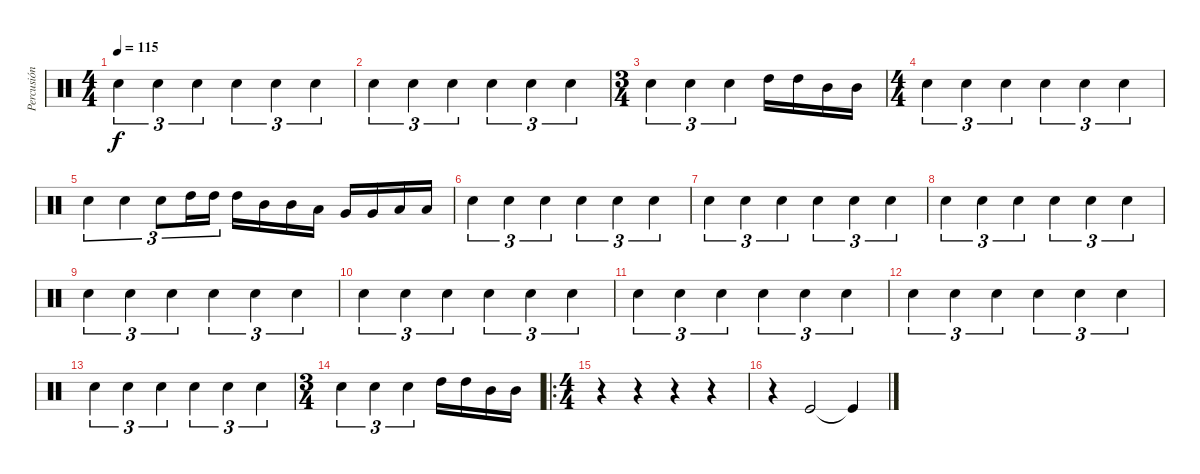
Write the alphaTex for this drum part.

\track ("Percusión" "Percusión") {instrument percussion}
\staff {score}
\articulation defaults
\ts (4 4)
\tempo 115
\clef neutral
\ks c "Electric Snare (hit)".4{tu (3 2) dy f} "Electric Snare (hit)".4{tu (3 2)} "Electric Snare (hit)".4{tu (3 2)} "Electric Snare (hit)".4{tu (3 2)} "Electric Snare (hit)".4{tu (3 2)} "Electric Snare (hit)".4{tu (3 2)}
|
"Electric Snare (hit)".4{tu (3 2)} "Electric Snare (hit)".4{tu (3 2)} "Electric Snare (hit)".4{tu (3 2)} "Electric Snare (hit)".4{tu (3 2)} "Electric Snare (hit)".4{tu (3 2)} "Electric Snare (hit)".4{tu (3 2)} |
\ts (3 4)
"Electric Snare (hit)".4{tu (3 2)} "Electric Snare (hit)".4{tu (3 2)} "Electric Snare (hit)".4{tu (3 2)} "High Tom (hit)".16 "High Tom (hit)".16 "Mid Tom (hit)".16 "Mid Tom (hit)".16 |
\ts (4 4)
"Electric Snare (hit)".4{tu (3 2)} "Electric Snare (hit)".4{tu (3 2)} "Electric Snare (hit)".4{tu (3 2)} "Electric Snare (hit)".4{tu (3 2)} "Electric Snare (hit)".4{tu (3 2)} "Electric Snare (hit)".4{tu (3 2)} |
"Electric Snare (hit)".4{tu (3 2)} "Electric Snare (hit)".4{tu (3 2)} "Electric Snare (hit)".8{tu (3 2)} "High Tom (hit)".16{tu (3 2)} "High Tom (hit)".16{tu (3 2)} "High Tom (hit)".16 "Mid Tom (hit)".16 "Mid Tom (hit)".16 "Low Tom (hit)".16 "Very Low Tom (hit)".16 "Very Low Tom (hit)".16 "Low Floor Tom (hit)".16 "Low Floor Tom (hit)".16 |
"Electric Snare (hit)".4{tu (3 2)} "Electric Snare (hit)".4{tu (3 2)} "Electric Snare (hit)".4{tu (3 2)} "Electric Snare (hit)".4{tu (3 2)} "Electric Snare (hit)".4{tu (3 2)} "Electric Snare (hit)".4{tu (3 2)} |
"Electric Snare (hit)".4{tu (3 2)} "Electric Snare (hit)".4{tu (3 2)} "Electric Snare (hit)".4{tu (3 2)} "Electric Snare (hit)".4{tu (3 2)} "Electric Snare (hit)".4{tu (3 2)} "Electric Snare (hit)".4{tu (3 2)} |
"Electric Snare (hit)".4{tu (3 2)} "Electric Snare (hit)".4{tu (3 2)} "Electric Snare (hit)".4{tu (3 2)} "Electric Snare (hit)".4{tu (3 2)} "Electric Snare (hit)".4{tu (3 2)} "Electric Snare (hit)".4{tu (3 2)} |
"Electric Snare (hit)".4{tu (3 2)} "Electric Snare (hit)".4{tu (3 2)} "Electric Snare (hit)".4{tu (3 2)} "Electric Snare (hit)".4{tu (3 2)} "Electric Snare (hit)".4{tu (3 2)} "Electric Snare (hit)".4{tu (3 2)} |
"Electric Snare (hit)".4{tu (3 2)} "Electric Snare (hit)".4{tu (3 2)} "Electric Snare (hit)".4{tu (3 2)} "Electric Snare (hit)".4{tu (3 2)} "Electric Snare (hit)".4{tu (3 2)} "Electric Snare (hit)".4{tu (3 2)} |
"Electric Snare (hit)".4{tu (3 2)} "Electric Snare (hit)".4{tu (3 2)} "Electric Snare (hit)".4{tu (3 2)} "Electric Snare (hit)".4{tu (3 2)} "Electric Snare (hit)".4{tu (3 2)} "Electric Snare (hit)".4{tu (3 2)} |
"Electric Snare (hit)".4{tu (3 2)} "Electric Snare (hit)".4{tu (3 2)} "Electric Snare (hit)".4{tu (3 2)} "Electric Snare (hit)".4{tu (3 2)} "Electric Snare (hit)".4{tu (3 2)} "Electric Snare (hit)".4{tu (3 2)} |
"Electric Snare (hit)".4{tu (3 2)} "Electric Snare (hit)".4{tu (3 2)} "Electric Snare (hit)".4{tu (3 2)} "Electric Snare (hit)".4{tu (3 2)} "Electric Snare (hit)".4{tu (3 2)} "Electric Snare (hit)".4{tu (3 2)} |
\ts (3 4)
"Electric Snare (hit)".4{tu (3 2)} "Electric Snare (hit)".4{tu (3 2)} "Electric Snare (hit)".4{tu (3 2)} "High Tom (hit)".16 "High Tom (hit)".16 "Mid Tom (hit)".16 "Mid Tom (hit)".16 |
\ro
\ts (4 4)
r.4 r.4 r.4 r.4 |
r.4 "Kick (hit)".2 "Kick (hit)"{t}.4
